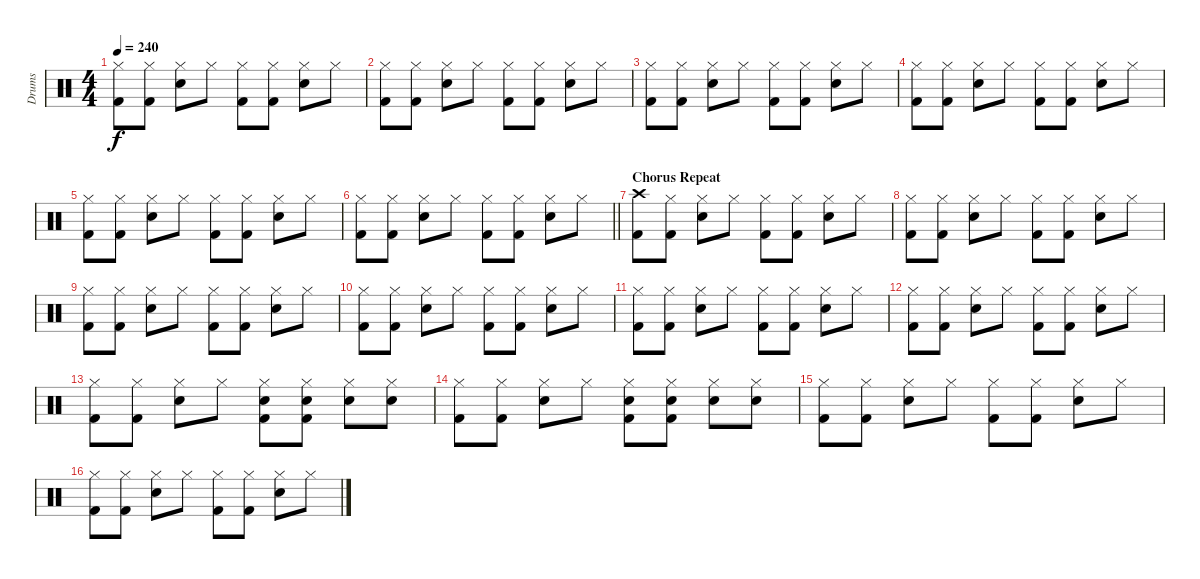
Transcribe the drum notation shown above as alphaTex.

\track ("Drums" "Drums") {instrument percussion}
\staff {score}
\articulation defaults
\ts (4 4)
\tempo 240
\clef neutral
\ks c
("Hi-Hat (closed)" "Kick (hit) 2").8{dy f} ("Hi-Hat (closed)" "Kick (hit) 2").8 ("Hi-Hat (closed)" "Snare (hit) 2").8 "Hi-Hat (closed)".8 ("Hi-Hat (closed)" "Kick (hit) 2").8 ("Hi-Hat (closed)" "Kick (hit) 2").8 ("Hi-Hat (closed)" "Snare (hit) 2").8 "Hi-Hat (closed)".8 |
("Hi-Hat (closed)" "Kick (hit) 2").8 ("Hi-Hat (closed)" "Kick (hit) 2").8 ("Hi-Hat (closed)" "Snare (hit) 2").8 "Hi-Hat (closed)".8 ("Hi-Hat (closed)" "Kick (hit) 2").8 ("Hi-Hat (closed)" "Kick (hit) 2").8 ("Hi-Hat (closed)" "Snare (hit) 2").8 "Hi-Hat (closed)".8 |
("Hi-Hat (closed)" "Kick (hit) 2").8 ("Hi-Hat (closed)" "Kick (hit) 2").8 ("Hi-Hat (closed)" "Snare (hit) 2").8 "Hi-Hat (closed)".8 ("Hi-Hat (closed)" "Kick (hit) 2").8 ("Hi-Hat (closed)" "Kick (hit) 2").8 ("Hi-Hat (closed)" "Snare (hit) 2").8 "Hi-Hat (closed)".8 |
("Hi-Hat (closed)" "Kick (hit) 2").8 ("Hi-Hat (closed)" "Kick (hit) 2").8 ("Hi-Hat (closed)" "Snare (hit) 2").8 "Hi-Hat (closed)".8 ("Hi-Hat (closed)" "Kick (hit) 2").8 ("Hi-Hat (closed)" "Kick (hit) 2").8 ("Hi-Hat (closed)" "Snare (hit) 2").8 "Hi-Hat (closed)".8 |
("Hi-Hat (closed)" "Kick (hit) 2").8 ("Hi-Hat (closed)" "Kick (hit) 2").8 ("Hi-Hat (closed)" "Snare (hit) 2").8 "Hi-Hat (closed)".8 ("Hi-Hat (closed)" "Kick (hit) 2").8 ("Hi-Hat (closed)" "Kick (hit) 2").8 ("Hi-Hat (closed)" "Snare (hit) 2").8 "Hi-Hat (closed)".8 |
\barLineRight lightlight
("Hi-Hat (closed)" "Kick (hit) 2").8 ("Hi-Hat (closed)" "Kick (hit) 2").8 ("Hi-Hat (closed)" "Snare (hit) 2").8 "Hi-Hat (closed)".8 ("Hi-Hat (closed)" "Kick (hit) 2").8 ("Hi-Hat (closed)" "Kick (hit) 2").8 ("Hi-Hat (closed)" "Snare (hit) 2").8 "Hi-Hat (closed)".8 |
\section ("" "Chorus Repeat")
("Crash high (hit)" "Kick (hit) 2").8 ("Hi-Hat (closed)" "Kick (hit) 2").8 ("Hi-Hat (closed)" "Snare (hit) 2").8 "Hi-Hat (closed)".8 ("Hi-Hat (closed)" "Kick (hit) 2").8 ("Hi-Hat (closed)" "Kick (hit) 2").8 ("Hi-Hat (closed)" "Snare (hit) 2").8 "Hi-Hat (closed)".8 |
("Hi-Hat (closed)" "Kick (hit) 2").8 ("Hi-Hat (closed)" "Kick (hit) 2").8 ("Hi-Hat (closed)" "Snare (hit) 2").8 "Hi-Hat (closed)".8 ("Hi-Hat (closed)" "Kick (hit) 2").8 ("Hi-Hat (closed)" "Kick (hit) 2").8 ("Hi-Hat (closed)" "Snare (hit) 2").8 "Hi-Hat (closed)".8 |
("Hi-Hat (closed)" "Kick (hit) 2").8 ("Hi-Hat (closed)" "Kick (hit) 2").8 ("Hi-Hat (closed)" "Snare (hit) 2").8 "Hi-Hat (closed)".8 ("Hi-Hat (closed)" "Kick (hit) 2").8 ("Hi-Hat (closed)" "Kick (hit) 2").8 ("Hi-Hat (closed)" "Snare (hit) 2").8 "Hi-Hat (closed)".8 |
("Hi-Hat (closed)" "Kick (hit) 2").8 ("Hi-Hat (closed)" "Kick (hit) 2").8 ("Hi-Hat (closed)" "Snare (hit) 2").8 "Hi-Hat (closed)".8 ("Hi-Hat (closed)" "Kick (hit) 2").8 ("Hi-Hat (closed)" "Kick (hit) 2").8 ("Hi-Hat (closed)" "Snare (hit) 2").8 "Hi-Hat (closed)".8 |
("Hi-Hat (closed)" "Kick (hit) 2").8 ("Hi-Hat (closed)" "Kick (hit) 2").8 ("Hi-Hat (closed)" "Snare (hit) 2").8 "Hi-Hat (closed)".8 ("Hi-Hat (closed)" "Kick (hit) 2").8 ("Hi-Hat (closed)" "Kick (hit) 2").8 ("Hi-Hat (closed)" "Snare (hit) 2").8 "Hi-Hat (closed)".8 |
("Hi-Hat (closed)" "Kick (hit) 2").8 ("Hi-Hat (closed)" "Kick (hit) 2").8 ("Hi-Hat (closed)" "Snare (hit) 2").8 "Hi-Hat (closed)".8 ("Hi-Hat (closed)" "Kick (hit) 2").8 ("Hi-Hat (closed)" "Kick (hit) 2").8 ("Hi-Hat (closed)" "Snare (hit) 2").8 "Hi-Hat (closed)".8 |
("Hi-Hat (closed)" "Kick (hit) 2").8 ("Hi-Hat (closed)" "Kick (hit) 2").8 ("Hi-Hat (closed)" "Snare (hit) 2").8 "Hi-Hat (closed)".8 ("Hi-Hat (closed)" "Snare (hit) 2" "Kick (hit) 2").8 ("Hi-Hat (closed)" "Snare (hit) 2" "Kick (hit) 2").8 ("Hi-Hat (closed)" "Snare (hit) 2").8 ("Hi-Hat (closed)" "Snare (hit) 2").8 |
("Hi-Hat (closed)" "Kick (hit) 2").8 ("Hi-Hat (closed)" "Kick (hit) 2").8 ("Hi-Hat (closed)" "Snare (hit) 2").8 "Hi-Hat (closed)".8 ("Hi-Hat (closed)" "Snare (hit) 2" "Kick (hit) 2").8 ("Hi-Hat (closed)" "Snare (hit) 2" "Kick (hit) 2").8 ("Hi-Hat (closed)" "Snare (hit) 2").8 ("Hi-Hat (closed)" "Snare (hit) 2").8 |
("Hi-Hat (closed)" "Kick (hit) 2").8 ("Hi-Hat (closed)" "Kick (hit) 2").8 ("Hi-Hat (closed)" "Snare (hit) 2").8 "Hi-Hat (closed)".8 ("Hi-Hat (closed)" "Kick (hit) 2").8 ("Hi-Hat (closed)" "Kick (hit) 2").8 ("Hi-Hat (closed)" "Snare (hit) 2").8 "Hi-Hat (closed)".8 |
("Hi-Hat (closed)" "Kick (hit) 2").8 ("Hi-Hat (closed)" "Kick (hit) 2").8 ("Hi-Hat (closed)" "Snare (hit) 2").8 "Hi-Hat (closed)".8 ("Hi-Hat (closed)" "Kick (hit) 2").8 ("Hi-Hat (closed)" "Kick (hit) 2").8 ("Hi-Hat (closed)" "Snare (hit) 2").8 "Hi-Hat (closed)".8
